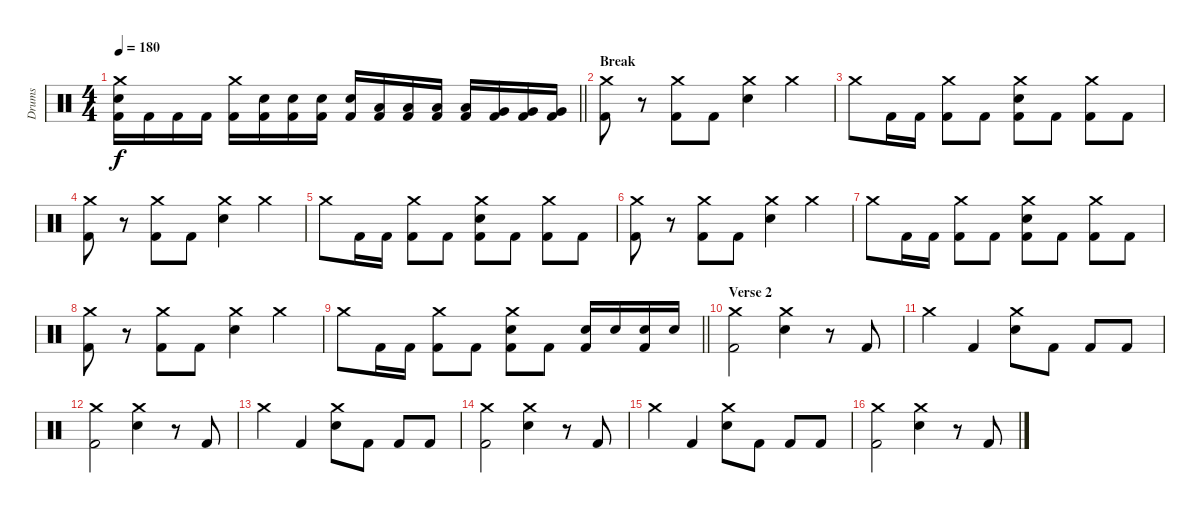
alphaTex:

\track ("Drums" "Drums") {instrument percussion}
\staff {score}
\articulation defaults
\ts (4 4)
\tempo 180
\clef neutral
\barLineRight lightlight
\ks c
("Crash medium (hit)" "Snare (hit) 2" "Kick (hit) 2").16{dy f} "Kick (hit) 2".16 "Kick (hit) 2".16 "Kick (hit) 2".16 ("Crash medium (hit)" "Kick (hit) 2").16 ("Snare (hit) 2" "Kick (hit) 2").16 ("Snare (hit) 2" "Kick (hit) 2").16 ("Snare (hit) 2" "Kick (hit) 2").16 ("Snare (hit) 2" "Kick (hit) 2").16 ("Low Tom (hit)" "Kick (hit) 2").16 ("Low Tom (hit)" "Kick (hit) 2").16 ("Low Tom (hit)" "Kick (hit) 2").16 ("Low Tom (hit)" "Kick (hit) 2").16 ("Very Low Tom (hit)" "Kick (hit) 2").16 ("Very Low Tom (hit)" "Kick (hit) 2").16 ("Very Low Tom (hit)" "Kick (hit) 2").16 |
\section ("" "Break")
("Crash medium (hit)" "Kick (hit) 2").8 r.8 ("Crash medium (hit)" "Kick (hit) 2").8 "Kick (hit) 2".8 ("Crash medium (hit)" "Snare (hit) 2").4 "Crash medium (hit)".4 |
"Crash medium (hit)".8 "Kick (hit) 2".16 "Kick (hit) 2".16 ("Crash medium (hit)" "Kick (hit) 2").8 "Kick (hit) 2".8 ("Crash medium (hit)" "Snare (hit) 2" "Kick (hit) 2").8 "Kick (hit) 2".8 ("Crash medium (hit)" "Kick (hit) 2").8 "Kick (hit) 2".8 |
("Crash medium (hit)" "Kick (hit) 2").8 r.8 ("Crash medium (hit)" "Kick (hit) 2").8 "Kick (hit) 2".8 ("Crash medium (hit)" "Snare (hit) 2").4 "Crash medium (hit)".4 |
"Crash medium (hit)".8 "Kick (hit) 2".16 "Kick (hit) 2".16 ("Crash medium (hit)" "Kick (hit) 2").8 "Kick (hit) 2".8 ("Crash medium (hit)" "Snare (hit) 2" "Kick (hit) 2").8 "Kick (hit) 2".8 ("Crash medium (hit)" "Kick (hit) 2").8 "Kick (hit) 2".8 |
("Crash medium (hit)" "Kick (hit) 2").8 r.8 ("Crash medium (hit)" "Kick (hit) 2").8 "Kick (hit) 2".8 ("Crash medium (hit)" "Snare (hit) 2").4 "Crash medium (hit)".4 |
"Crash medium (hit)".8 "Kick (hit) 2".16 "Kick (hit) 2".16 ("Crash medium (hit)" "Kick (hit) 2").8 "Kick (hit) 2".8 ("Crash medium (hit)" "Snare (hit) 2" "Kick (hit) 2").8 "Kick (hit) 2".8 ("Crash medium (hit)" "Kick (hit) 2").8 "Kick (hit) 2".8 |
("Crash medium (hit)" "Kick (hit) 2").8 r.8 ("Crash medium (hit)" "Kick (hit) 2").8 "Kick (hit) 2".8 ("Crash medium (hit)" "Snare (hit) 2").4 "Crash medium (hit)".4 |
\barLineRight lightlight "Crash medium (hit)".8 "Kick (hit) 2".16 "Kick (hit) 2".16
("Crash medium (hit)" "Kick (hit) 2").8 "Kick (hit) 2".8 ("Crash medium (hit)" "Snare (hit) 2" "Kick (hit) 2").8 "Kick (hit) 2".8 ("Snare (hit) 2" "Kick (hit) 2").16 "Snare (hit) 2".16 ("Snare (hit) 2" "Kick (hit) 2").16 "Snare (hit) 2".16 |
\section ("" "Verse 2")
("Crash medium (hit)" "Kick (hit) 2").2 ("Crash medium (hit)" "Snare (hit) 2").4 r.8 "Kick (hit) 2".8 |
"Crash medium (hit)".4 "Kick (hit) 2".4 ("Crash medium (hit)" "Snare (hit) 2").8 "Kick (hit) 2".8 "Kick (hit) 2".8 "Kick (hit) 2".8 |
("Crash medium (hit)" "Kick (hit) 2").2 ("Crash medium (hit)" "Snare (hit) 2").4 r.8 "Kick (hit) 2".8 |
"Crash medium (hit)".4 "Kick (hit) 2".4 ("Crash medium (hit)" "Snare (hit) 2").8 "Kick (hit) 2".8 "Kick (hit) 2".8 "Kick (hit) 2".8 |
("Crash medium (hit)" "Kick (hit) 2").2 ("Crash medium (hit)" "Snare (hit) 2").4 r.8 "Kick (hit) 2".8 |
"Crash medium (hit)".4 "Kick (hit) 2".4 ("Crash medium (hit)" "Snare (hit) 2").8 "Kick (hit) 2".8 "Kick (hit) 2".8 "Kick (hit) 2".8 |
("Crash medium (hit)" "Kick (hit) 2").2 ("Crash medium (hit)" "Snare (hit) 2").4 r.8 "Kick (hit) 2".8
